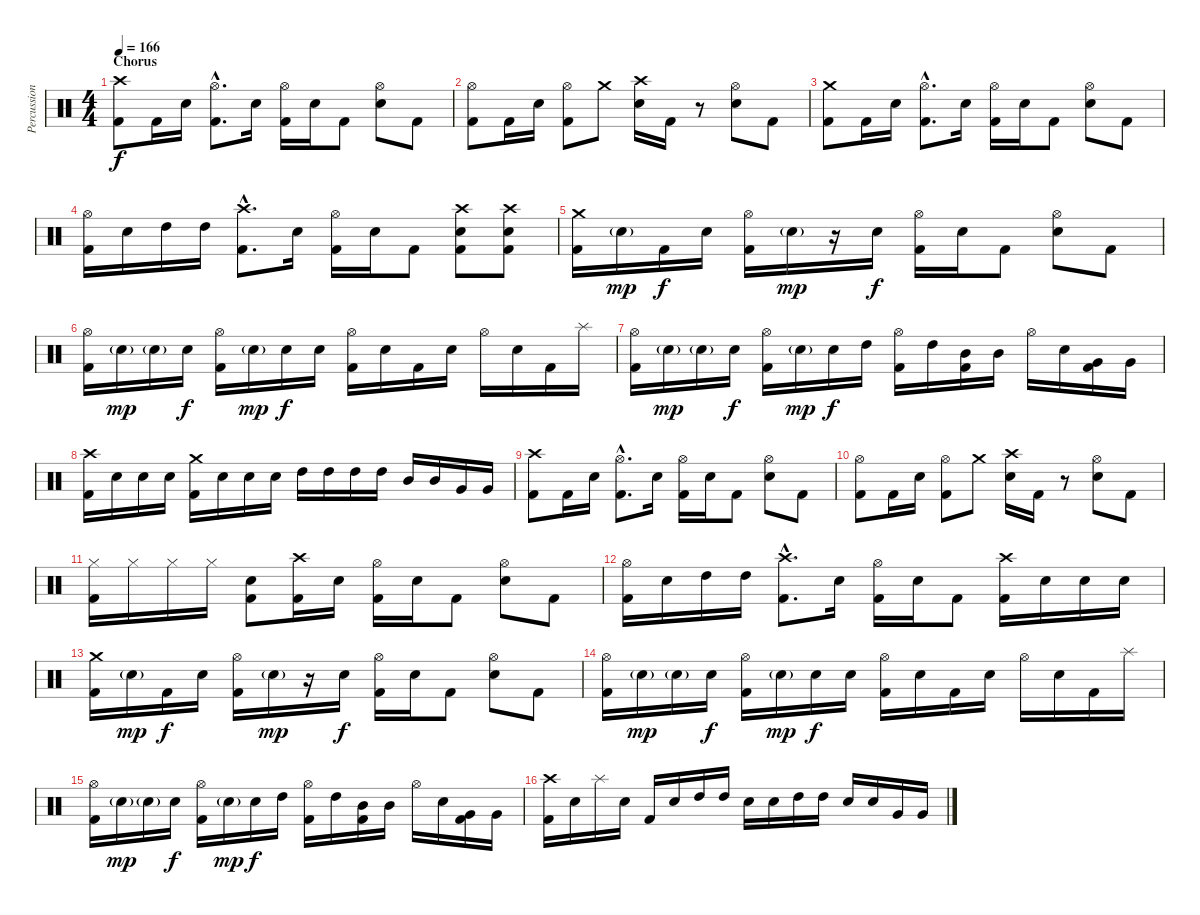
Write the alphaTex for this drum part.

\track ("Percussion" "Percussion") {instrument percussion}
\staff {score}
\articulation defaults
\ts (4 4)
\section ("" "Chorus")
\tempo 166
\clef neutral
\ks c
("Crash high (hit)" "Kick (hit) 2").8{dy f} "Kick (hit) 2".16 "Electric Snare (hit)".16 ("Hi-Hat (open)"{hac} "Kick (hit) 2"{hac}).8{d} "Electric Snare (hit)".16 ("Hi-Hat (open)" "Kick (hit) 2").16 "Electric Snare (hit)".16 "Kick (hit) 2".8 ("Hi-Hat (open)" "Electric Snare (hit)").8 "Kick (hit) 2".8 |
("Hi-Hat (open)" "Kick (hit) 2").8 "Kick (hit) 2".16 "Electric Snare (hit)".16 ("Hi-Hat (open)" "Kick (hit) 2").8 "Crash medium (hit)".8 ("Crash high (hit)" "Electric Snare (hit)").16 "Kick (hit) 2".16 r.8 ("Hi-Hat (open)" "Electric Snare (hit)").8 "Kick (hit) 2".8 |
("Crash medium (hit)" "Kick (hit) 2").8 "Kick (hit) 2".16 "Electric Snare (hit)".16 ("Hi-Hat (open)"{hac} "Kick (hit) 2"{hac}).8{d} "Electric Snare (hit)".16 ("Hi-Hat (open)" "Kick (hit) 2").16 "Electric Snare (hit)".16 "Kick (hit) 2".8 ("Hi-Hat (open)" "Electric Snare (hit)").8 "Kick (hit) 2".8 |
("Hi-Hat (open)" "Kick (hit) 2").16 "Electric Snare (hit)".16 "High Tom (hit)".16 "High Tom (hit)".16 ("Crash high (hit)"{hac} "Kick (hit) 2"{hac}).8{d} "Electric Snare (hit)".16 ("Hi-Hat (open)" "Kick (hit) 2").16 "Electric Snare (hit)".16 "Kick (hit) 2".8 ("Crash high (hit)" "Electric Snare (hit)" "Kick (hit) 2").8 ("Crash high (hit)" "Electric Snare (hit)" "Kick (hit) 2").8 |
("Crash medium (hit)" "Kick (hit) 2").16 "Electric Snare (hit)"{g}.16{dy mp} "Kick (hit) 2".16{dy f} "Electric Snare (hit)".16 ("Hi-Hat (open)" "Kick (hit) 2").16 "Electric Snare (hit)"{g}.16{dy mp} r.16 "Electric Snare (hit)".16{dy f} ("Hi-Hat (open)" "Kick (hit) 2").16 "Electric Snare (hit)".16 "Kick (hit) 2".8 ("Hi-Hat (open)" "Electric Snare (hit)").8 "Kick (hit) 2".8 |
("Hi-Hat (open)" "Kick (hit) 2").16 "Electric Snare (hit)"{g}.16{dy mp} "Electric Snare (hit)"{g}.16 "Electric Snare (hit)".16{dy f} ("Hi-Hat (open)" "Kick (hit) 2").16 "Electric Snare (hit)"{g}.16{dy mp} "Electric Snare (hit)".16{dy f} "Electric Snare (hit)".16 ("Hi-Hat (open)" "Kick (hit) 2").16 "Electric Snare (hit)".16 "Kick (hit) 2".16 "Electric Snare (hit)".16 "Hi-Hat (open)".16 "Electric Snare (hit)".16 "Kick (hit) 2".16 "Splash (hit)".16 |
("Hi-Hat (open)" "Kick (hit) 2").16 "Electric Snare (hit)"{g}.16{dy mp} "Electric Snare (hit)"{g}.16 "Electric Snare (hit)".16{dy f} ("Hi-Hat (open)" "Kick (hit) 2").16 "Electric Snare (hit)"{g}.16{dy mp} "Electric Snare (hit)".16{dy f} "High Tom (hit)".16 ("Hi-Hat (open)" "Kick (hit) 2").16 "High Tom (hit)".16 ("Mid Tom (hit)" "Kick (hit) 2").16 "Mid Tom (hit)".16 "Hi-Hat (open)".16 "Electric Snare (hit)".16 ("Very Low Tom (hit)" "Kick (hit) 2").16 "Very Low Tom (hit)".16 |
("Crash high (hit)" "Kick (hit) 2").16 "Electric Snare (hit)".16 "Electric Snare (hit)".16 "Electric Snare (hit)".16 ("Crash medium (hit)" "Kick (hit) 2").16 "Electric Snare (hit)".16 "Electric Snare (hit)".16 "Electric Snare (hit)".16 "High Tom (hit)".16 "High Tom (hit)".16 "High Tom (hit)".16 "High Tom (hit)".16 "Mid Tom (hit)".16 "Mid Tom (hit)".16 "Very Low Tom (hit)".16 "Very Low Tom (hit)".16 |
("Crash high (hit)" "Kick (hit) 2").8 "Kick (hit) 2".16 "Electric Snare (hit)".16 ("Hi-Hat (open)"{hac} "Kick (hit) 2"{hac}).8{d} "Electric Snare (hit)".16 ("Hi-Hat (open)" "Kick (hit) 2").16 "Electric Snare (hit)".16 "Kick (hit) 2".8 ("Hi-Hat (open)" "Electric Snare (hit)").8 "Kick (hit) 2".8 |
("Hi-Hat (open)" "Kick (hit) 2").8 "Kick (hit) 2".16 "Electric Snare (hit)".16 ("Hi-Hat (open)" "Kick (hit) 2").8 "Crash medium (hit)".8 ("Crash high (hit)" "Electric Snare (hit)").16 "Kick (hit) 2".16 r.8 ("Hi-Hat (open)" "Electric Snare (hit)").8 "Kick (hit) 2".8 |
("Hi-Hat (closed)" "Kick (hit) 2").16 "Hi-Hat (closed)".16 "Hi-Hat (closed)".16 "Hi-Hat (closed)".16 ("Electric Snare (hit)" "Kick (hit) 2").8 ("Crash high (hit)" "Kick (hit) 2").16 "Electric Snare (hit)".16 ("Hi-Hat (open)" "Kick (hit) 2").16 "Electric Snare (hit)".16 "Kick (hit) 2".8 ("Hi-Hat (open)" "Electric Snare (hit)").8 "Kick (hit) 2".8 |
("Hi-Hat (open)" "Kick (hit) 2").16 "Electric Snare (hit)".16 "High Tom (hit)".16 "High Tom (hit)".16 ("Crash high (hit)"{hac} "Kick (hit) 2"{hac}).8{d} "Electric Snare (hit)".16 ("Hi-Hat (open)" "Kick (hit) 2").16 "Electric Snare (hit)".16 "Kick (hit) 2".8 ("Crash high (hit)" "Kick (hit) 2").16 "Electric Snare (hit)".16 "Electric Snare (hit)".16 "Electric Snare (hit)".16 |
("Crash medium (hit)" "Kick (hit) 2").16 "Electric Snare (hit)"{g}.16{dy mp} "Kick (hit) 2".16{dy f} "Electric Snare (hit)".16 ("Hi-Hat (open)" "Kick (hit) 2").16 "Electric Snare (hit)"{g}.16{dy mp} r.16 "Electric Snare (hit)".16{dy f} ("Hi-Hat (open)" "Kick (hit) 2").16 "Electric Snare (hit)".16 "Kick (hit) 2".8 ("Hi-Hat (open)" "Electric Snare (hit)").8 "Kick (hit) 2".8 |
("Hi-Hat (open)" "Kick (hit) 2").16 "Electric Snare (hit)"{g}.16{dy mp} "Electric Snare (hit)"{g}.16 "Electric Snare (hit)".16{dy f} ("Hi-Hat (open)" "Kick (hit) 2").16 "Electric Snare (hit)"{g}.16{dy mp} "Electric Snare (hit)".16{dy f} "Electric Snare (hit)".16 ("Hi-Hat (open)" "Kick (hit) 2").16 "Electric Snare (hit)".16 "Kick (hit) 2".16 "Electric Snare (hit)".16 "Hi-Hat (open)".16 "Electric Snare (hit)".16 "Kick (hit) 2".16 "Splash (hit)".16 |
("Hi-Hat (open)" "Kick (hit) 2").16 "Electric Snare (hit)"{g}.16{dy mp} "Electric Snare (hit)"{g}.16 "Electric Snare (hit)".16{dy f} ("Hi-Hat (open)" "Kick (hit) 2").16 "Electric Snare (hit)"{g}.16{dy mp} "Electric Snare (hit)".16{dy f} "High Tom (hit)".16 ("Hi-Hat (open)" "Kick (hit) 2").16 "High Tom (hit)".16 ("Mid Tom (hit)" "Kick (hit) 2").16 "Mid Tom (hit)".16 "Hi-Hat (open)".16 "Electric Snare (hit)".16 ("Very Low Tom (hit)" "Kick (hit) 2").16 "Very Low Tom (hit)".16 |
("Crash high (hit)" "Kick (hit) 2").16 "Electric Snare (hit)".16 "Splash (hit)".16 "Electric Snare (hit)".16 "Kick (hit) 2".16 "Electric Snare (hit)".16 "High Tom (hit)".16 "High Tom (hit)".16 "Electric Snare (hit)".16 "Electric Snare (hit)".16 "High Tom (hit)".16 "High Tom (hit)".16 "Electric Snare (hit)".16 "Electric Snare (hit)".16 "Very Low Tom (hit)".16 "Very Low Tom (hit)".16
